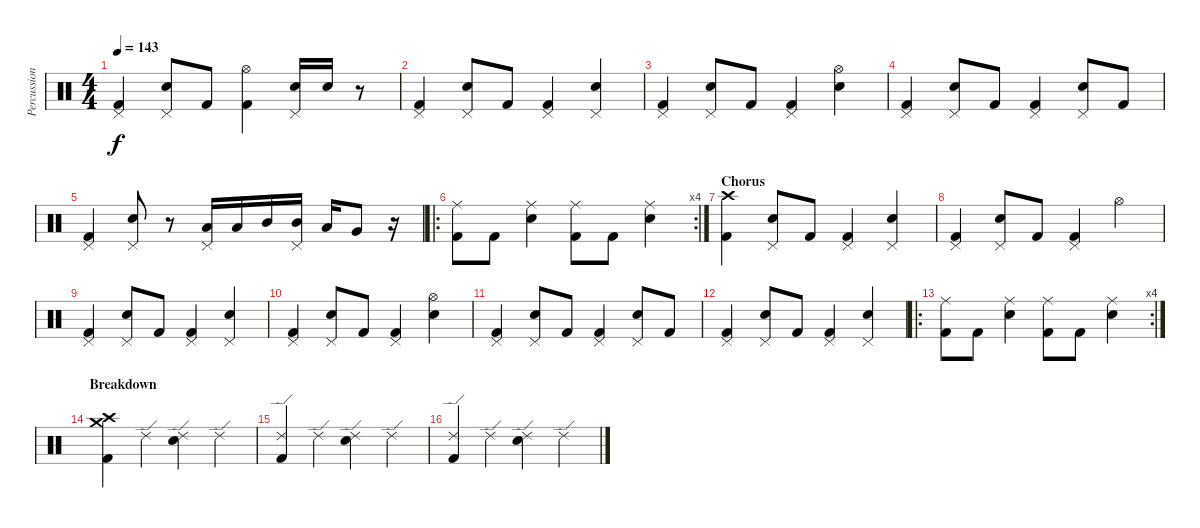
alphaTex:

\track ("Percussion" "Percussion") {instrument percussion}
\staff {score}
\articulation defaults
\ts (4 4)
\tempo 143
\clef neutral
\ks c
("Pedal Hi-Hat (hit)" "Kick (hit) 2").4{dy f} ("Pedal Hi-Hat (hit)" "Electric Snare (hit)").8 "Kick (hit) 2".8 ("Hi-Hat (open)" "Kick (hit) 2").4 ("Pedal Hi-Hat (hit)" "Electric Snare (hit)").16 "Electric Snare (hit)".16 r.8 |
("Pedal Hi-Hat (hit)" "Kick (hit) 2").4 ("Pedal Hi-Hat (hit)" "Electric Snare (hit)").8 "Kick (hit) 2".8 ("Pedal Hi-Hat (hit)" "Kick (hit) 2").4 ("Pedal Hi-Hat (hit)" "Electric Snare (hit)").4 |
("Pedal Hi-Hat (hit)" "Kick (hit) 2").4 ("Pedal Hi-Hat (hit)" "Electric Snare (hit)").8 "Kick (hit) 2".8 ("Pedal Hi-Hat (hit)" "Kick (hit) 2").4 ("Hi-Hat (open)" "Electric Snare (hit)").4 |
("Pedal Hi-Hat (hit)" "Kick (hit) 2").4 ("Pedal Hi-Hat (hit)" "Electric Snare (hit)").8 "Kick (hit) 2".8 ("Pedal Hi-Hat (hit)" "Kick (hit) 2").4 ("Pedal Hi-Hat (hit)" "Electric Snare (hit)").8 "Kick (hit) 2".8 |
("Pedal Hi-Hat (hit)" "Kick (hit) 2").4 ("Pedal Hi-Hat (hit)" "Electric Snare (hit)").8 r.8 ("Pedal Hi-Hat (hit)" "Low Tom (hit)").16 "Low Tom (hit)".16 "Mid Tom (hit)".16 ("Pedal Hi-Hat (hit)" "Mid Tom (hit)").16 "Low Tom (hit)".16 "Very Low Tom (hit)".8 r.16 |
\ro
\rc 4
("Ride (middle)" "Kick (hit) 2").8 "Kick (hit) 2".8 ("Ride (middle)" "Electric Snare (hit)").4 ("Ride (middle)" "Kick (hit) 2").8 "Kick (hit) 2".8 ("Ride (middle)" "Electric Snare (hit)").4 |
\section ("" "Chorus")
("Crash high (hit)" "Kick (hit) 2").4 ("Pedal Hi-Hat (hit)" "Electric Snare (hit)").8 "Kick (hit) 2".8 ("Pedal Hi-Hat (hit)" "Kick (hit) 2").4 ("Pedal Hi-Hat (hit)" "Electric Snare (hit)").4 |
("Pedal Hi-Hat (hit)" "Kick (hit) 2").4 ("Pedal Hi-Hat (hit)" "Electric Snare (hit)").8 "Kick (hit) 2".8 ("Pedal Hi-Hat (hit)" "Kick (hit) 2").4 "Hi-Hat (open)".4 |
("Pedal Hi-Hat (hit)" "Kick (hit) 2").4 ("Pedal Hi-Hat (hit)" "Electric Snare (hit)").8 "Kick (hit) 2".8 ("Pedal Hi-Hat (hit)" "Kick (hit) 2").4 ("Pedal Hi-Hat (hit)" "Electric Snare (hit)").4 |
("Pedal Hi-Hat (hit)" "Kick (hit) 2").4 ("Pedal Hi-Hat (hit)" "Electric Snare (hit)").8 "Kick (hit) 2".8 ("Pedal Hi-Hat (hit)" "Kick (hit) 2").4 ("Hi-Hat (open)" "Electric Snare (hit)").4 |
("Pedal Hi-Hat (hit)" "Kick (hit) 2").4 ("Pedal Hi-Hat (hit)" "Electric Snare (hit)").8 "Kick (hit) 2".8 ("Pedal Hi-Hat (hit)" "Kick (hit) 2").4 ("Pedal Hi-Hat (hit)" "Electric Snare (hit)").8 "Kick (hit) 2".8 |
("Pedal Hi-Hat (hit)" "Kick (hit) 2").4 ("Pedal Hi-Hat (hit)" "Electric Snare (hit)").8 "Kick (hit) 2".8 ("Pedal Hi-Hat (hit)" "Kick (hit) 2").4 ("Pedal Hi-Hat (hit)" "Electric Snare (hit)").4 |
\ro
\rc 4
("Ride (middle)" "Kick (hit) 2").8 "Kick (hit) 2".8 ("Ride (middle)" "Electric Snare (hit)").4 ("Ride (middle)" "Kick (hit) 2").8 "Kick (hit) 2".8 ("Ride (middle)" "Electric Snare (hit)").4 |
\section ("" "Breakdown")
("Crash medium (hit)" "Crash high (hit)" "Kick (hit) 2").4 "Ride (edge) 2".4 ("Ride (edge) 2" "Electric Snare (hit)").4 "Ride (edge) 2".4 |
("Ride (edge) 2" "Kick (hit) 2").4 "Ride (edge) 2".4 ("Ride (edge) 2" "Electric Snare (hit)").4 "Ride (edge) 2".4 |
("Ride (edge) 2" "Kick (hit) 2").4 "Ride (edge) 2".4 ("Ride (edge) 2" "Electric Snare (hit)").4 "Ride (edge) 2".4
